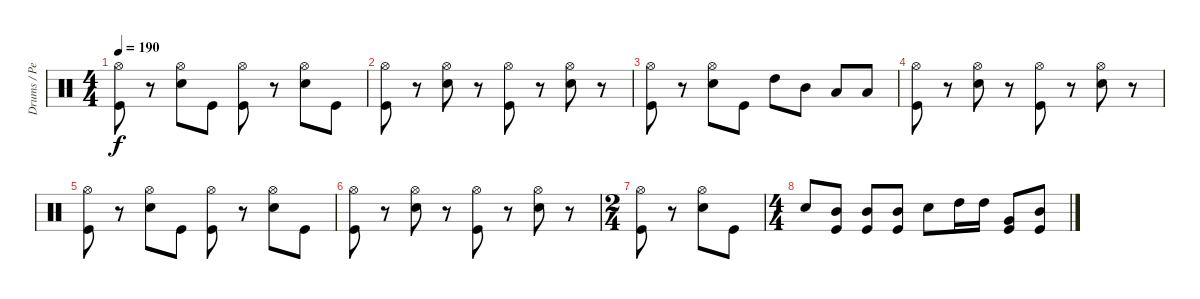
\track ("Drums / Percussion" "Drums / Pe") {instrument percussion}
\staff {score}
\articulation defaults
\ts (4 4)
\tempo 190
\clef neutral
\ks c
("Hi-Hat (open)" "Kick (hit)").8{dy f} r.8 ("Hi-Hat (open)" "Electric Snare (hit)").8 "Kick (hit)".8 ("Hi-Hat (open)" "Kick (hit)").8 r.8 ("Hi-Hat (open)" "Electric Snare (hit)").8 "Kick (hit)".8 |
("Hi-Hat (open)" "Kick (hit)").8 r.8 ("Hi-Hat (open)" "Electric Snare (hit)").8 r.8 ("Hi-Hat (open)" "Kick (hit)").8 r.8 ("Hi-Hat (open)" "Electric Snare (hit)").8 r.8 |
("Hi-Hat (open)" "Kick (hit)").8 r.8 ("Hi-Hat (open)" "Electric Snare (hit)").8 "Kick (hit)".8 "High Tom (hit)".8 "Mid Tom (hit)".8 "Low Tom (hit)".8 "Low Tom (hit)".8 |
("Hi-Hat (open)" "Kick (hit)").8 r.8 ("Hi-Hat (open)" "Electric Snare (hit)").8 r.8 ("Hi-Hat (open)" "Kick (hit)").8 r.8 ("Hi-Hat (open)" "Electric Snare (hit)").8 r.8 |
("Hi-Hat (open)" "Kick (hit)").8 r.8 ("Hi-Hat (open)" "Electric Snare (hit)").8 "Kick (hit)".8 ("Hi-Hat (open)" "Kick (hit)").8 r.8 ("Hi-Hat (open)" "Electric Snare (hit)").8 "Kick (hit)".8 |
("Hi-Hat (open)" "Kick (hit)").8 r.8 ("Hi-Hat (open)" "Electric Snare (hit)").8 r.8 ("Hi-Hat (open)" "Kick (hit)").8 r.8 ("Hi-Hat (open)" "Electric Snare (hit)").8 r.8 |
\ts (2 4)
("Hi-Hat (open)" "Kick (hit)").8 r.8 ("Hi-Hat (open)" "Electric Snare (hit)").8 "Kick (hit)".8 |
\ts (4 4)
"Electric Snare (hit)".8 ("Mid Tom (hit)" "Kick (hit)").8 ("Mid Tom (hit)" "Kick (hit)").8 ("Mid Tom (hit)" "Kick (hit)").8 "Electric Snare (hit)".8 "High Tom (hit)".16 "High Tom (hit)".16 ("Very Low Tom (hit)" "Kick (hit)").8 ("Mid Tom (hit)" "Kick (hit)").8
